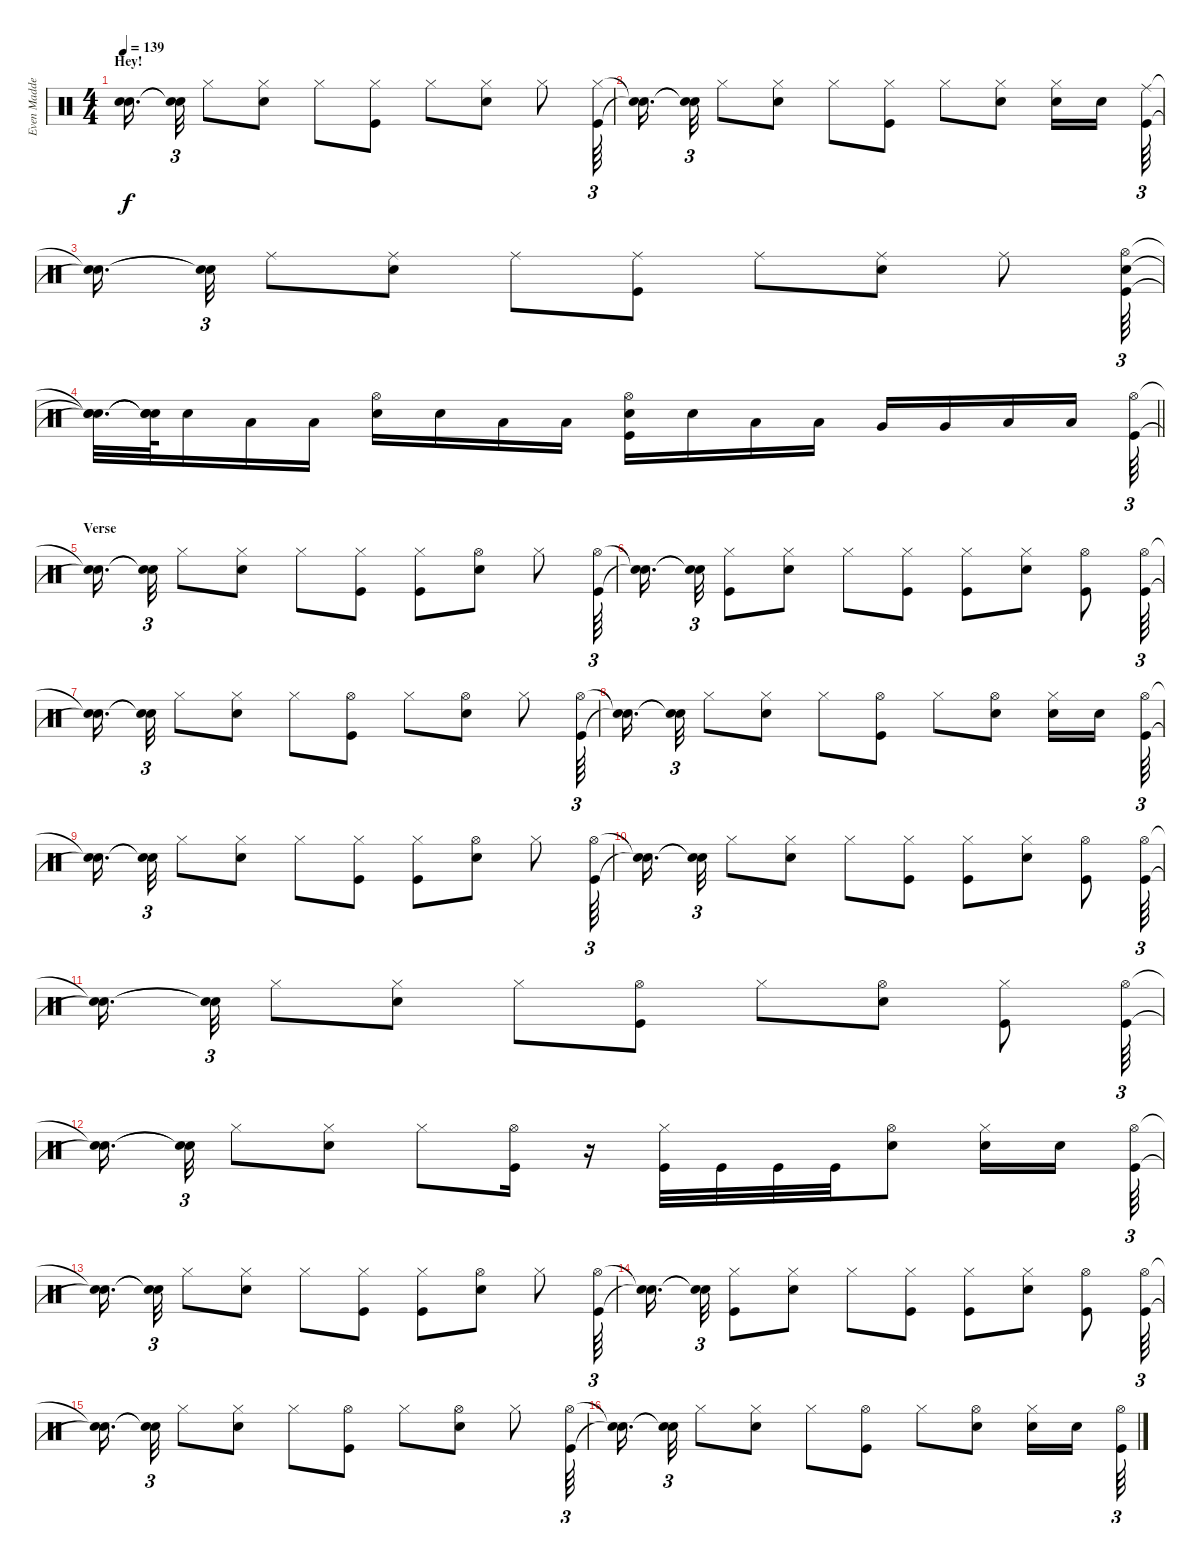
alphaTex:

\track ("Even Madden - Drums" "Even Madde") {instrument percussion}
\staff {score}
\articulation defaults
\ts (4 4)
\section ("" "Hey!")
\tempo 139
\clef neutral
\ks c
("Snare (hit)"{t} "Snare (hit)"{t}).16{d dy f beam splitsecondary} ("Snare (hit)"{t} "Snare (hit)"{t}).32{tu (3 2)} "Hi-Hat (closed)".8 ("Hi-Hat (closed)" "Snare (hit) 2").8 "Hi-Hat (closed)".8 ("Hi-Hat (closed)" "Kick (hit)").8 "Hi-Hat (closed)".8 ("Hi-Hat (closed)" "Snare (hit) 2").8 "Hi-Hat (closed)".8 ("Hi-Hat (closed)" "Kick (hit)").64{tu (3 2)} |
("Snare (hit)"{t} "Snare (hit)"{t}).16{d beam splitsecondary} ("Snare (hit)"{t} "Snare (hit)"{t}).32{tu (3 2)} "Hi-Hat (closed)".8 ("Hi-Hat (closed)" "Snare (hit) 2").8 "Hi-Hat (closed)".8 ("Hi-Hat (closed)" "Kick (hit)").8 "Hi-Hat (closed)".8 ("Hi-Hat (closed)" "Snare (hit) 2").8 ("Hi-Hat (closed)" "Snare (hit) 2").16 "Snare (hit) 2".16{beam splitsecondary} ("Kick (hit)" "Ride (middle)").64{tu (3 2)} |
("Snare (hit)"{t} "Snare (hit)"{t}).16{d beam splitsecondary} ("Snare (hit)"{t} "Snare (hit)"{t}).32{tu (3 2)} "Ride (middle)".8 ("Ride (middle)" "Snare (hit) 2").8 "Ride (middle)".8 ("Ride (middle)" "Kick (hit)").8 "Ride (middle)".8 ("Ride (middle)" "Snare (hit) 2").8 "Ride (middle)".8 ("Snare (hit) 2" "Kick (hit)" "Hi-Hat (open)").64{tu (3 2)} |
\barLineRight lightlight
("Snare (hit)"{t} "Snare (hit)"{t} "Snare (hit)"{t}).32{d} ("Snare (hit)"{t} "Snare (hit)"{t} "Snare (hit)"{t}).64 "Snare (hit) 2".16 "Low Tom (hit)".16 "Low Tom (hit)".16 ("Snare (hit) 2" "Hi-Hat (open)").16 "Snare (hit) 2".16 "Low Tom (hit)".16 "Low Tom (hit)".16 ("Snare (hit) 2" "Kick (hit)" "Hi-Hat (open)").16 "Snare (hit) 2".16 "Low Tom (hit)".16 "Low Tom (hit)".16 "Very Low Tom (hit)".16 "Very Low Tom (hit)".16 "Low Floor Tom (hit)".16 "Low Floor Tom (hit)".16 ("Kick (hit)" "Hi-Hat (open)").64{tu (3 2)} |
\section ("" "Verse ")
("Snare (hit)"{t} "Snare (hit)"{t}).16{d beam splitsecondary} ("Snare (hit)"{t} "Snare (hit)"{t}).32{tu (3 2)} "Hi-Hat (closed)".8 ("Hi-Hat (closed)" "Snare (hit) 2").8 "Hi-Hat (closed)".8 ("Hi-Hat (closed)" "Kick (hit)").8 ("Hi-Hat (closed)" "Kick (hit)").8 ("Hi-Hat (open)" "Snare (hit) 2").8 "Hi-Hat (closed)".8 ("Kick (hit)" "Hi-Hat (open)").64{tu (3 2)} |
("Snare (hit)"{t} "Snare (hit)"{t}).16{d beam splitsecondary} ("Snare (hit)"{t} "Snare (hit)"{t}).32{tu (3 2)} ("Hi-Hat (closed)" "Kick (hit)").8 ("Hi-Hat (closed)" "Snare (hit) 2").8 "Hi-Hat (closed)".8 ("Hi-Hat (closed)" "Kick (hit)").8 ("Hi-Hat (closed)" "Kick (hit)").8 ("Hi-Hat (closed)" "Snare (hit) 2").8 ("Hi-Hat (open)" "Kick (hit)").8 ("Kick (hit)" "Hi-Hat (open)").64{tu (3 2)} |
("Snare (hit)"{t} "Snare (hit)"{t}).16{d beam splitsecondary} ("Snare (hit)"{t} "Snare (hit)"{t}).32{tu (3 2)} "Hi-Hat (closed)".8 ("Hi-Hat (closed)" "Snare (hit) 2").8 "Hi-Hat (closed)".8 ("Hi-Hat (open)" "Kick (hit)").8 "Hi-Hat (closed)".8 ("Hi-Hat (open)" "Snare (hit) 2").8 "Hi-Hat (closed)".8 ("Kick (hit)" "Hi-Hat (open)").64{tu (3 2)} |
("Snare (hit)"{t} "Snare (hit)"{t}).16{d beam splitsecondary} ("Snare (hit)"{t} "Snare (hit)"{t}).32{tu (3 2)} "Hi-Hat (closed)".8 ("Hi-Hat (closed)" "Snare (hit) 2").8 "Hi-Hat (closed)".8 ("Hi-Hat (open)" "Kick (hit)").8 "Hi-Hat (closed)".8 ("Hi-Hat (open)" "Snare (hit) 2").8 ("Hi-Hat (closed)" "Snare (hit) 2").16 "Snare (hit) 2".16{beam splitsecondary} ("Kick (hit)" "Hi-Hat (open)").64{tu (3 2)} |
("Snare (hit)"{t} "Snare (hit)"{t}).16{d beam splitsecondary} ("Snare (hit)"{t} "Snare (hit)"{t}).32{tu (3 2)} "Hi-Hat (closed)".8 ("Hi-Hat (closed)" "Snare (hit) 2").8 "Hi-Hat (closed)".8 ("Hi-Hat (closed)" "Kick (hit)").8 ("Hi-Hat (closed)" "Kick (hit)").8 ("Hi-Hat (open)" "Snare (hit) 2").8 "Hi-Hat (closed)".8 ("Kick (hit)" "Hi-Hat (open)").64{tu (3 2)} |
("Snare (hit)"{t} "Snare (hit)"{t}).16{d beam splitsecondary} ("Snare (hit)"{t} "Snare (hit)"{t}).32{tu (3 2)} "Hi-Hat (closed)".8 ("Hi-Hat (closed)" "Snare (hit) 2").8 "Hi-Hat (closed)".8 ("Hi-Hat (closed)" "Kick (hit)").8 ("Hi-Hat (closed)" "Kick (hit)").8 ("Hi-Hat (closed)" "Snare (hit) 2").8 ("Hi-Hat (open)" "Kick (hit)").8 ("Kick (hit)" "Hi-Hat (open)").64{tu (3 2)} |
("Snare (hit)"{t} "Snare (hit)"{t}).16{d beam splitsecondary} ("Snare (hit)"{t} "Snare (hit)"{t}).32{tu (3 2)} "Hi-Hat (closed)".8 ("Hi-Hat (closed)" "Snare (hit) 2").8 "Hi-Hat (closed)".8 ("Hi-Hat (open)" "Kick (hit)").8 "Hi-Hat (closed)".8 ("Hi-Hat (open)" "Snare (hit) 2").8 ("Hi-Hat (closed)" "Kick (hit)").8 ("Kick (hit)" "Hi-Hat (open)").64{tu (3 2)} |
("Snare (hit)"{t} "Snare (hit)"{t}).16{d beam splitsecondary} ("Snare (hit)"{t} "Snare (hit)"{t}).32{tu (3 2)} "Hi-Hat (closed)".8 ("Hi-Hat (closed)" "Snare (hit) 2").8 "Hi-Hat (closed)".8 ("Hi-Hat (open)" "Kick (hit)").16 r.16 ("Hi-Hat (closed)" "Kick (hit)").32 "Kick (hit)".32 "Kick (hit)".32 "Kick (hit)".32 ("Hi-Hat (open)" "Snare (hit) 2").8 ("Hi-Hat (closed)" "Snare (hit) 2").16 "Snare (hit) 2".16{beam splitsecondary} ("Kick (hit)" "Hi-Hat (open)").64{tu (3 2)} |
("Snare (hit)"{t} "Snare (hit)"{t}).16{d beam splitsecondary} ("Snare (hit)"{t} "Snare (hit)"{t}).32{tu (3 2)} "Hi-Hat (closed)".8 ("Hi-Hat (closed)" "Snare (hit) 2").8 "Hi-Hat (closed)".8 ("Hi-Hat (closed)" "Kick (hit)").8 ("Hi-Hat (closed)" "Kick (hit)").8 ("Hi-Hat (open)" "Snare (hit) 2").8 "Hi-Hat (closed)".8 ("Kick (hit)" "Hi-Hat (open)").64{tu (3 2)} |
("Snare (hit)"{t} "Snare (hit)"{t}).16{d beam splitsecondary} ("Snare (hit)"{t} "Snare (hit)"{t}).32{tu (3 2)} ("Hi-Hat (closed)" "Kick (hit)").8 ("Hi-Hat (closed)" "Snare (hit) 2").8 "Hi-Hat (closed)".8 ("Hi-Hat (closed)" "Kick (hit)").8 ("Hi-Hat (closed)" "Kick (hit)").8 ("Hi-Hat (closed)" "Snare (hit) 2").8 ("Hi-Hat (open)" "Kick (hit)").8 ("Kick (hit)" "Hi-Hat (open)").64{tu (3 2)} |
("Snare (hit)"{t} "Snare (hit)"{t}).16{d beam splitsecondary} ("Snare (hit)"{t} "Snare (hit)"{t}).32{tu (3 2)} "Hi-Hat (closed)".8 ("Hi-Hat (closed)" "Snare (hit) 2").8 "Hi-Hat (closed)".8 ("Hi-Hat (open)" "Kick (hit)").8 "Hi-Hat (closed)".8 ("Hi-Hat (open)" "Snare (hit) 2").8 "Hi-Hat (closed)".8 ("Kick (hit)" "Hi-Hat (open)").64{tu (3 2)} |
("Snare (hit)"{t} "Snare (hit)"{t}).16{d beam splitsecondary} ("Snare (hit)"{t} "Snare (hit)"{t}).32{tu (3 2)} "Hi-Hat (closed)".8 ("Hi-Hat (closed)" "Snare (hit) 2").8 "Hi-Hat (closed)".8 ("Hi-Hat (open)" "Kick (hit)").8 "Hi-Hat (closed)".8 ("Hi-Hat (open)" "Snare (hit) 2").8 ("Hi-Hat (closed)" "Snare (hit) 2").16 "Snare (hit) 2".16{beam splitsecondary} ("Kick (hit)" "Hi-Hat (open)").64{tu (3 2)}
